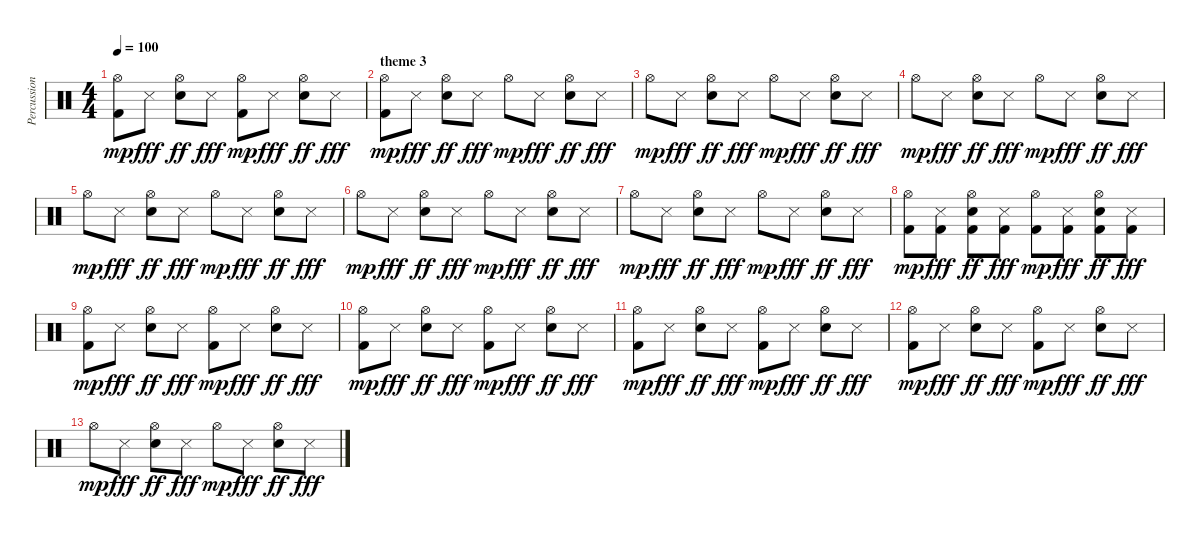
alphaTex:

\track ("Percussions" "Percussion") {instrument percussion}
\staff {score}
\articulation defaults
\ts (4 4)
\tempo 100
\clef neutral
\ks c
("Hi-Hat (open)" "Kick (hit) 2").8{dy mp} "Snare (side stick) 3".8{dy fff} ("Hi-Hat (open)" "Electric Snare (hit)").8{dy ff} "Snare (side stick) 3".8{dy fff} ("Hi-Hat (open)" "Kick (hit) 2").8{dy mp} "Snare (side stick) 3".8{dy fff} ("Hi-Hat (open)" "Electric Snare (hit)").8{dy ff} "Snare (side stick) 3".8{dy fff} |
\section ("" "theme 3")
("Hi-Hat (open)" "Kick (hit) 2").8{dy mp} "Snare (side stick) 3".8{dy fff} ("Hi-Hat (open)" "Electric Snare (hit)").8{dy ff} "Snare (side stick) 3".8{dy fff} "Hi-Hat (open)".8{dy mp} "Snare (side stick) 3".8{dy fff} ("Hi-Hat (open)" "Electric Snare (hit)").8{dy ff} "Snare (side stick) 3".8{dy fff} |
"Hi-Hat (open)".8{dy mp} "Snare (side stick) 3".8{dy fff} ("Hi-Hat (open)" "Electric Snare (hit)").8{dy ff} "Snare (side stick) 3".8{dy fff} "Hi-Hat (open)".8{dy mp} "Snare (side stick) 3".8{dy fff} ("Hi-Hat (open)" "Electric Snare (hit)").8{dy ff} "Snare (side stick) 3".8{dy fff} |
"Hi-Hat (open)".8{dy mp} "Snare (side stick) 3".8{dy fff} ("Hi-Hat (open)" "Electric Snare (hit)").8{dy ff} "Snare (side stick) 3".8{dy fff} "Hi-Hat (open)".8{dy mp} "Snare (side stick) 3".8{dy fff} ("Hi-Hat (open)" "Electric Snare (hit)").8{dy ff} "Snare (side stick) 3".8{dy fff} |
"Hi-Hat (open)".8{dy mp} "Snare (side stick) 3".8{dy fff} ("Hi-Hat (open)" "Electric Snare (hit)").8{dy ff} "Snare (side stick) 3".8{dy fff} "Hi-Hat (open)".8{dy mp} "Snare (side stick) 3".8{dy fff} ("Hi-Hat (open)" "Electric Snare (hit)").8{dy ff} "Snare (side stick) 3".8{dy fff} |
"Hi-Hat (open)".8{dy mp} "Snare (side stick) 3".8{dy fff} ("Hi-Hat (open)" "Electric Snare (hit)").8{dy ff} "Snare (side stick) 3".8{dy fff} "Hi-Hat (open)".8{dy mp} "Snare (side stick) 3".8{dy fff} ("Hi-Hat (open)" "Electric Snare (hit)").8{dy ff} "Snare (side stick) 3".8{dy fff} |
"Hi-Hat (open)".8{dy mp} "Snare (side stick) 3".8{dy fff} ("Hi-Hat (open)" "Electric Snare (hit)").8{dy ff} "Snare (side stick) 3".8{dy fff} "Hi-Hat (open)".8{dy mp} "Snare (side stick) 3".8{dy fff} ("Hi-Hat (open)" "Electric Snare (hit)").8{dy ff} "Snare (side stick) 3".8{dy fff} |
("Hi-Hat (open)" "Kick (hit) 2").8{dy mp} ("Snare (side stick) 3" "Kick (hit) 2").8{dy fff} ("Hi-Hat (open)" "Electric Snare (hit)" "Kick (hit) 2").8{dy ff} ("Snare (side stick) 3" "Kick (hit) 2").8{dy fff} ("Hi-Hat (open)" "Kick (hit) 2").8{dy mp} ("Snare (side stick) 3" "Kick (hit) 2").8{dy fff} ("Hi-Hat (open)" "Electric Snare (hit)" "Kick (hit) 2").8{dy ff} ("Snare (side stick) 3" "Kick (hit) 2").8{dy fff} |
("Hi-Hat (open)" "Kick (hit) 2").8{dy mp} "Snare (side stick) 3".8{dy fff} ("Hi-Hat (open)" "Electric Snare (hit)").8{dy ff} "Snare (side stick) 3".8{dy fff} ("Hi-Hat (open)" "Kick (hit) 2").8{dy mp} "Snare (side stick) 3".8{dy fff} ("Hi-Hat (open)" "Electric Snare (hit)").8{dy ff} "Snare (side stick) 3".8{dy fff} |
("Hi-Hat (open)" "Kick (hit) 2").8{dy mp} "Snare (side stick) 3".8{dy fff} ("Hi-Hat (open)" "Electric Snare (hit)").8{dy ff} "Snare (side stick) 3".8{dy fff} ("Hi-Hat (open)" "Kick (hit) 2").8{dy mp} "Snare (side stick) 3".8{dy fff} ("Hi-Hat (open)" "Electric Snare (hit)").8{dy ff} "Snare (side stick) 3".8{dy fff} |
("Hi-Hat (open)" "Kick (hit) 2").8{dy mp} "Snare (side stick) 3".8{dy fff} ("Hi-Hat (open)" "Electric Snare (hit)").8{dy ff} "Snare (side stick) 3".8{dy fff} ("Hi-Hat (open)" "Kick (hit) 2").8{dy mp} "Snare (side stick) 3".8{dy fff} ("Hi-Hat (open)" "Electric Snare (hit)").8{dy ff} "Snare (side stick) 3".8{dy fff} |
("Hi-Hat (open)" "Kick (hit) 2").8{dy mp} "Snare (side stick) 3".8{dy fff} ("Hi-Hat (open)" "Electric Snare (hit)").8{dy ff} "Snare (side stick) 3".8{dy fff} ("Hi-Hat (open)" "Kick (hit) 2").8{dy mp} "Snare (side stick) 3".8{dy fff} ("Hi-Hat (open)" "Electric Snare (hit)").8{dy ff} "Snare (side stick) 3".8{dy fff} |
"Hi-Hat (open)".8{dy mp} "Snare (side stick) 3".8{dy fff} ("Hi-Hat (open)" "Electric Snare (hit)").8{dy ff} "Snare (side stick) 3".8{dy fff} "Hi-Hat (open)".8{dy mp} "Snare (side stick) 3".8{dy fff} ("Hi-Hat (open)" "Electric Snare (hit)").8{dy ff} "Snare (side stick) 3".8{dy fff}
